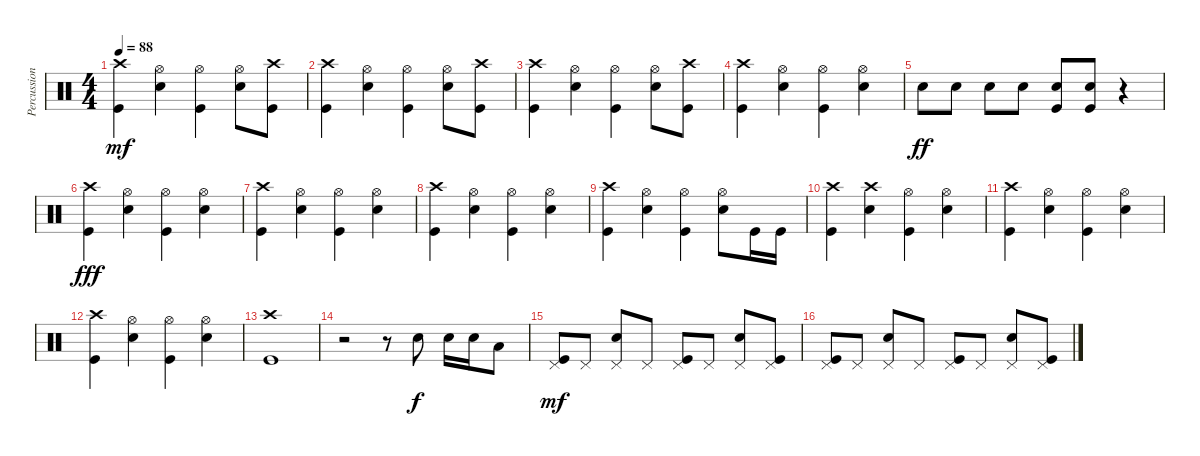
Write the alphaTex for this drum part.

\track ("Percussion" "Percussion") {instrument percussion}
\staff {score}
\articulation defaults
\ts (4 4)
\tempo 88
\clef neutral
\ks c
("Kick (hit)" "Crash high (hit)").4{dy mf} ("Snare (hit) 2" "Hi-Hat (open)").4 ("Kick (hit)" "Hi-Hat (open)").4 ("Snare (hit) 2" "Hi-Hat (open)").8 ("Kick (hit)" "Crash high (hit)").8 |
("Kick (hit)" "Crash high (hit)").4 ("Snare (hit) 2" "Hi-Hat (open)").4 ("Kick (hit)" "Hi-Hat (open)").4 ("Snare (hit) 2" "Hi-Hat (open)").8 ("Kick (hit)" "Crash high (hit)").8 |
("Kick (hit)" "Crash high (hit)").4 ("Snare (hit) 2" "Hi-Hat (open)").4 ("Kick (hit)" "Hi-Hat (open)").4 ("Snare (hit) 2" "Hi-Hat (open)").8 ("Kick (hit)" "Crash high (hit)").8 |
("Kick (hit)" "Crash high (hit)").4 ("Snare (hit) 2" "Hi-Hat (open)").4 ("Kick (hit)" "Hi-Hat (open)").4 ("Snare (hit) 2" "Hi-Hat (open)").4 |
"Snare (hit) 2".8{dy ff} "Snare (hit) 2".8 "Snare (hit) 2".8 "Snare (hit) 2".8 ("Snare (hit) 2" "Kick (hit)").8 ("Snare (hit) 2" "Kick (hit)").8 r.4 |
("Kick (hit)" "Crash high (hit)").4{dy fff} ("Snare (hit) 2" "Hi-Hat (open)").4 ("Kick (hit)" "Hi-Hat (open)").4 ("Snare (hit) 2" "Hi-Hat (open)").4 |
("Kick (hit)" "Crash high (hit)").4 ("Snare (hit) 2" "Hi-Hat (open)").4 ("Kick (hit)" "Hi-Hat (open)").4 ("Snare (hit) 2" "Hi-Hat (open)").4 |
("Kick (hit)" "Crash high (hit)").4 ("Snare (hit) 2" "Hi-Hat (open)").4 ("Kick (hit)" "Hi-Hat (open)").4 ("Snare (hit) 2" "Hi-Hat (open)").4 |
("Kick (hit)" "Crash high (hit)").4 ("Snare (hit) 2" "Hi-Hat (open)").4 ("Kick (hit)" "Hi-Hat (open)").4 ("Snare (hit) 2" "Hi-Hat (open)").8 "Kick (hit)".16 "Kick (hit)".16 |
("Kick (hit)" "Crash high (hit)").4 ("Snare (hit) 2" "Crash high (hit)").4 ("Kick (hit)" "Hi-Hat (open)").4 ("Snare (hit) 2" "Hi-Hat (open)").4 |
("Kick (hit)" "Crash high (hit)").4 ("Snare (hit) 2" "Hi-Hat (open)").4 ("Kick (hit)" "Hi-Hat (open)").4 ("Snare (hit) 2" "Hi-Hat (open)").4 |
("Kick (hit)" "Crash high (hit)").4 ("Snare (hit) 2" "Hi-Hat (open)").4 ("Kick (hit)" "Hi-Hat (open)").4 ("Snare (hit) 2" "Hi-Hat (open)").4 |
("Kick (hit)" "Crash high (hit)").1 |
r.2 r.8 "Snare (hit) 2".8{dy f} "Snare (hit) 2".16 "Snare (hit) 2".16 "Low Floor Tom (hit)".8 |
("Kick (hit)" "Pedal Hi-Hat (hit)").8{dy mf} "Pedal Hi-Hat (hit)".8 ("Snare (hit) 2" "Pedal Hi-Hat (hit)").8 "Pedal Hi-Hat (hit)".8 ("Kick (hit)" "Pedal Hi-Hat (hit)").8 "Pedal Hi-Hat (hit)".8 ("Snare (hit) 2" "Pedal Hi-Hat (hit)").8 ("Kick (hit)" "Pedal Hi-Hat (hit)").8 |
("Kick (hit)" "Pedal Hi-Hat (hit)").8 "Pedal Hi-Hat (hit)".8 ("Snare (hit) 2" "Pedal Hi-Hat (hit)").8 "Pedal Hi-Hat (hit)".8 ("Kick (hit)" "Pedal Hi-Hat (hit)").8 "Pedal Hi-Hat (hit)".8 ("Snare (hit) 2" "Pedal Hi-Hat (hit)").8 ("Kick (hit)" "Pedal Hi-Hat (hit)").8
